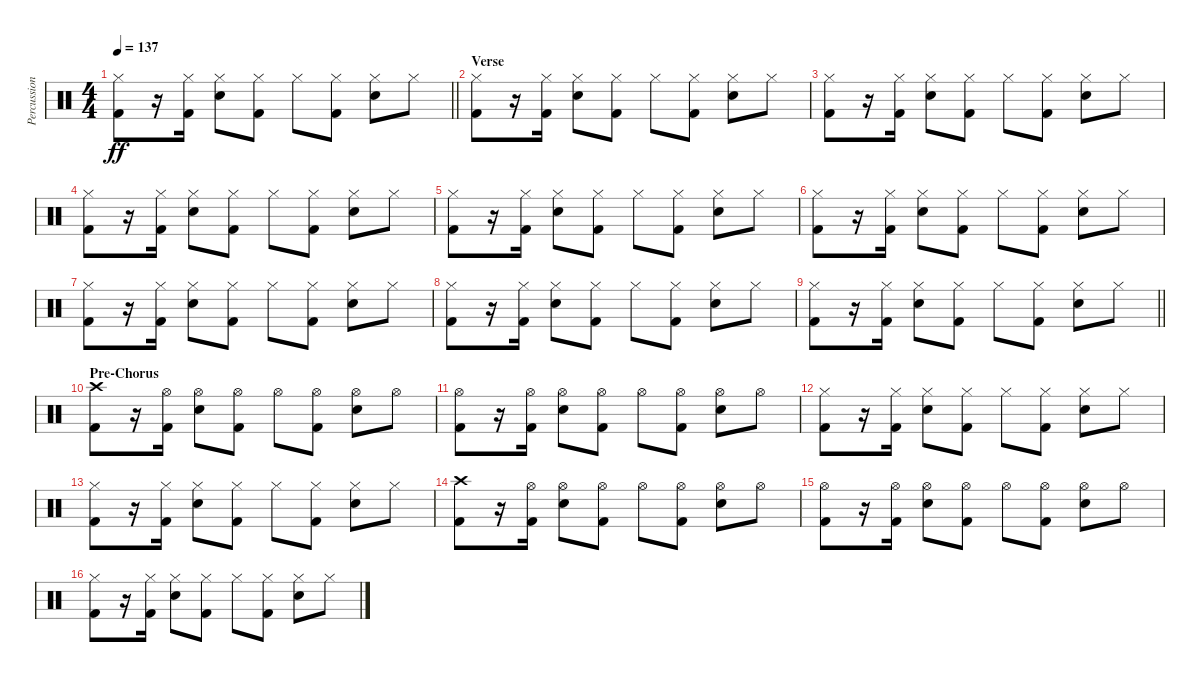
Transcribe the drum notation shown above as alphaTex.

\track ("Percussion" "Percussion") {instrument percussion}
\staff {score}
\articulation defaults
\ts (4 4)
\tempo 137
\clef neutral
\barLineRight lightlight
\ks c
("Hi-Hat (closed)" "Kick (hit) 2").8{dy ff} r.16 ("Hi-Hat (closed)" "Kick (hit) 2").16 ("Hi-Hat (closed)" "Electric Snare (hit)").8 ("Hi-Hat (closed)" "Kick (hit) 2").8 "Hi-Hat (closed)".8 ("Hi-Hat (closed)" "Kick (hit) 2").8 ("Hi-Hat (closed)" "Electric Snare (hit)").8 "Hi-Hat (closed)".8 |
\section ("" "Verse")
("Hi-Hat (closed)" "Kick (hit) 2").8 r.16 ("Hi-Hat (closed)" "Kick (hit) 2").16 ("Hi-Hat (closed)" "Electric Snare (hit)").8 ("Hi-Hat (closed)" "Kick (hit) 2").8 "Hi-Hat (closed)".8 ("Hi-Hat (closed)" "Kick (hit) 2").8 ("Hi-Hat (closed)" "Electric Snare (hit)").8 "Hi-Hat (closed)".8 |
("Hi-Hat (closed)" "Kick (hit) 2").8 r.16 ("Hi-Hat (closed)" "Kick (hit) 2").16 ("Hi-Hat (closed)" "Electric Snare (hit)").8 ("Hi-Hat (closed)" "Kick (hit) 2").8 "Hi-Hat (closed)".8 ("Hi-Hat (closed)" "Kick (hit) 2").8 ("Hi-Hat (closed)" "Electric Snare (hit)").8 "Hi-Hat (closed)".8 |
("Hi-Hat (closed)" "Kick (hit) 2").8 r.16 ("Hi-Hat (closed)" "Kick (hit) 2").16 ("Hi-Hat (closed)" "Electric Snare (hit)").8 ("Hi-Hat (closed)" "Kick (hit) 2").8 "Hi-Hat (closed)".8 ("Hi-Hat (closed)" "Kick (hit) 2").8 ("Hi-Hat (closed)" "Electric Snare (hit)").8 "Hi-Hat (closed)".8 |
("Hi-Hat (closed)" "Kick (hit) 2").8 r.16 ("Hi-Hat (closed)" "Kick (hit) 2").16 ("Hi-Hat (closed)" "Electric Snare (hit)").8 ("Hi-Hat (closed)" "Kick (hit) 2").8 "Hi-Hat (closed)".8 ("Hi-Hat (closed)" "Kick (hit) 2").8 ("Hi-Hat (closed)" "Electric Snare (hit)").8 "Hi-Hat (closed)".8 |
("Hi-Hat (closed)" "Kick (hit) 2").8 r.16 ("Hi-Hat (closed)" "Kick (hit) 2").16 ("Hi-Hat (closed)" "Electric Snare (hit)").8 ("Hi-Hat (closed)" "Kick (hit) 2").8 "Hi-Hat (closed)".8 ("Hi-Hat (closed)" "Kick (hit) 2").8 ("Hi-Hat (closed)" "Electric Snare (hit)").8 "Hi-Hat (closed)".8 |
("Hi-Hat (closed)" "Kick (hit) 2").8 r.16 ("Hi-Hat (closed)" "Kick (hit) 2").16 ("Hi-Hat (closed)" "Electric Snare (hit)").8 ("Hi-Hat (closed)" "Kick (hit) 2").8 "Hi-Hat (closed)".8 ("Hi-Hat (closed)" "Kick (hit) 2").8 ("Hi-Hat (closed)" "Electric Snare (hit)").8 "Hi-Hat (closed)".8 |
("Hi-Hat (closed)" "Kick (hit) 2").8 r.16 ("Hi-Hat (closed)" "Kick (hit) 2").16 ("Hi-Hat (closed)" "Electric Snare (hit)").8 ("Hi-Hat (closed)" "Kick (hit) 2").8 "Hi-Hat (closed)".8 ("Hi-Hat (closed)" "Kick (hit) 2").8 ("Hi-Hat (closed)" "Electric Snare (hit)").8 "Hi-Hat (closed)".8 |
\barLineRight lightlight
("Hi-Hat (closed)" "Kick (hit) 2").8 r.16 ("Hi-Hat (closed)" "Kick (hit) 2").16 ("Hi-Hat (closed)" "Electric Snare (hit)").8 ("Hi-Hat (closed)" "Kick (hit) 2").8 "Hi-Hat (closed)".8 ("Hi-Hat (closed)" "Kick (hit) 2").8 ("Hi-Hat (closed)" "Electric Snare (hit)").8 "Hi-Hat (closed)".8 |
\section ("" "Pre-Chorus")
("Crash high (hit)" "Kick (hit) 2").8 r.16 ("Hi-Hat (open)" "Kick (hit) 2").16 ("Hi-Hat (open)" "Electric Snare (hit)").8 ("Hi-Hat (open)" "Kick (hit) 2").8 "Hi-Hat (open)".8 ("Hi-Hat (open)" "Kick (hit) 2").8 ("Hi-Hat (open)" "Electric Snare (hit)").8 "Hi-Hat (open)".8 |
("Hi-Hat (open)" "Kick (hit) 2").8 r.16 ("Hi-Hat (open)" "Kick (hit) 2").16 ("Hi-Hat (open)" "Electric Snare (hit)").8 ("Hi-Hat (open)" "Kick (hit) 2").8 "Hi-Hat (open)".8 ("Hi-Hat (open)" "Kick (hit) 2").8 ("Hi-Hat (open)" "Electric Snare (hit)").8 "Hi-Hat (open)".8 |
("Hi-Hat (closed)" "Kick (hit) 2").8 r.16 ("Hi-Hat (closed)" "Kick (hit) 2").16 ("Hi-Hat (closed)" "Electric Snare (hit)").8 ("Hi-Hat (closed)" "Kick (hit) 2").8 "Hi-Hat (closed)".8 ("Hi-Hat (closed)" "Kick (hit) 2").8 ("Hi-Hat (closed)" "Electric Snare (hit)").8 "Hi-Hat (closed)".8 |
("Hi-Hat (closed)" "Kick (hit) 2").8 r.16 ("Hi-Hat (closed)" "Kick (hit) 2").16 ("Hi-Hat (closed)" "Electric Snare (hit)").8 ("Hi-Hat (closed)" "Kick (hit) 2").8 "Hi-Hat (closed)".8 ("Hi-Hat (closed)" "Kick (hit) 2").8 ("Hi-Hat (closed)" "Electric Snare (hit)").8 "Hi-Hat (closed)".8 |
("Crash high (hit)" "Kick (hit) 2").8 r.16 ("Hi-Hat (open)" "Kick (hit) 2").16 ("Hi-Hat (open)" "Electric Snare (hit)").8 ("Hi-Hat (open)" "Kick (hit) 2").8 "Hi-Hat (open)".8 ("Hi-Hat (open)" "Kick (hit) 2").8 ("Hi-Hat (open)" "Electric Snare (hit)").8 "Hi-Hat (open)".8 |
("Hi-Hat (open)" "Kick (hit) 2").8 r.16 ("Hi-Hat (open)" "Kick (hit) 2").16 ("Hi-Hat (open)" "Electric Snare (hit)").8 ("Hi-Hat (open)" "Kick (hit) 2").8 "Hi-Hat (open)".8 ("Hi-Hat (open)" "Kick (hit) 2").8 ("Hi-Hat (open)" "Electric Snare (hit)").8 "Hi-Hat (open)".8 |
("Hi-Hat (closed)" "Kick (hit) 2").8 r.16 ("Hi-Hat (closed)" "Kick (hit) 2").16 ("Hi-Hat (closed)" "Electric Snare (hit)").8 ("Hi-Hat (closed)" "Kick (hit) 2").8 "Hi-Hat (closed)".8 ("Hi-Hat (closed)" "Kick (hit) 2").8 ("Hi-Hat (closed)" "Electric Snare (hit)").8 "Hi-Hat (closed)".8
